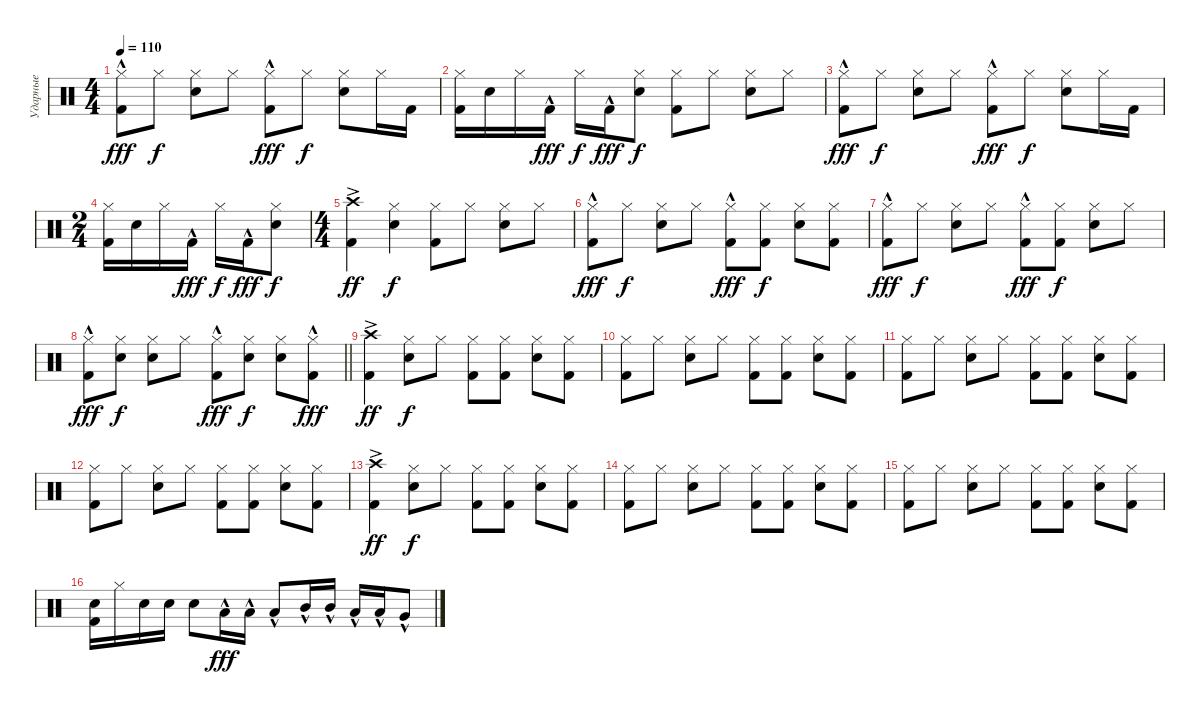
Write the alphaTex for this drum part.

\track ("Ударные" "Ударные") {instrument percussion}
\staff {score}
\articulation defaults
\ts (4 4)
\tempo 110
\clef neutral
\ks c
("Kick (hit) 2"{hac} "Hi-Hat (closed)").8{dy fff} "Hi-Hat (closed)".8{dy f} ("Snare (hit) 2" "Hi-Hat (closed)").8 "Hi-Hat (closed)".8 ("Kick (hit) 2"{hac} "Hi-Hat (closed)").8{dy fff} "Hi-Hat (closed)".8{dy f} ("Snare (hit) 2" "Hi-Hat (closed)").8 "Hi-Hat (closed)".16 "Kick (hit) 2".16 |
("Kick (hit) 2" "Hi-Hat (closed)").16 "Snare (hit) 2".16 "Hi-Hat (closed)".16 "Kick (hit) 2"{hac}.16{dy fff} "Hi-Hat (closed)".16{dy f} "Kick (hit) 2"{hac}.16{dy fff} ("Snare (hit) 2" "Hi-Hat (closed)").8{dy f} ("Kick (hit) 2" "Hi-Hat (closed)").8 "Hi-Hat (closed)".8 ("Snare (hit) 2" "Hi-Hat (closed)").8 "Hi-Hat (closed)".8 |
("Kick (hit) 2"{hac} "Hi-Hat (closed)").8{dy fff} "Hi-Hat (closed)".8{dy f} ("Snare (hit) 2" "Hi-Hat (closed)").8 "Hi-Hat (closed)".8 ("Kick (hit) 2"{hac} "Hi-Hat (closed)").8{dy fff} "Hi-Hat (closed)".8{dy f} ("Snare (hit) 2" "Hi-Hat (closed)").8 "Hi-Hat (closed)".16 "Kick (hit) 2".16 |
\ts (2 4)
("Kick (hit) 2" "Hi-Hat (closed)").16 "Snare (hit) 2".16 "Hi-Hat (closed)".16 "Kick (hit) 2"{hac}.16{dy fff} "Hi-Hat (closed)".16{dy f} "Kick (hit) 2"{hac}.16{dy fff} ("Snare (hit) 2" "Hi-Hat (closed)").8{dy f} |
\ts (4 4)
("Kick (hit) 2" "Crash high (hit)"{ac}).4{dy ff} ("Snare (hit) 2" "Hi-Hat (closed)").4{dy f} ("Kick (hit) 2" "Hi-Hat (closed)").8 "Hi-Hat (closed)".8 ("Snare (hit) 2" "Hi-Hat (closed)").8 "Hi-Hat (closed)".8 |
("Kick (hit) 2"{hac} "Hi-Hat (closed)").8{dy fff} "Hi-Hat (closed)".8{dy f} ("Snare (hit) 2" "Hi-Hat (closed)").8 "Hi-Hat (closed)".8 ("Kick (hit) 2"{hac} "Hi-Hat (closed)").8{dy fff} ("Kick (hit) 2" "Hi-Hat (closed)").8{dy f} ("Snare (hit) 2" "Hi-Hat (closed)").8 ("Kick (hit) 2" "Hi-Hat (closed)").8 |
("Kick (hit) 2"{hac} "Hi-Hat (closed)").8{dy fff} "Hi-Hat (closed)".8{dy f} ("Snare (hit) 2" "Hi-Hat (closed)").8 "Hi-Hat (closed)".8 ("Kick (hit) 2"{hac} "Hi-Hat (closed)").8{dy fff} ("Kick (hit) 2" "Hi-Hat (closed)").8{dy f} ("Snare (hit) 2" "Hi-Hat (closed)").8 "Hi-Hat (closed)".8 |
\barLineRight lightlight
("Kick (hit) 2"{hac} "Hi-Hat (closed)").8{dy fff} ("Snare (hit) 2" "Hi-Hat (closed)").8{dy f} ("Snare (hit) 2" "Hi-Hat (closed)").8 "Hi-Hat (closed)".8 ("Kick (hit) 2"{hac} "Hi-Hat (closed)").8{dy fff} ("Snare (hit) 2" "Hi-Hat (closed)").8{dy f} ("Snare (hit) 2" "Hi-Hat (closed)").8 ("Kick (hit) 2"{hac} "Hi-Hat (closed)").8{dy fff} |
("Kick (hit) 2" "Crash high (hit)"{ac}).4{dy ff} ("Snare (hit) 2" "Hi-Hat (closed)").8{dy f} "Hi-Hat (closed)".8 ("Kick (hit) 2" "Hi-Hat (closed)").8 ("Kick (hit) 2" "Hi-Hat (closed)").8 ("Snare (hit) 2" "Hi-Hat (closed)").8 ("Kick (hit) 2" "Hi-Hat (closed)").8 |
("Kick (hit) 2" "Hi-Hat (closed)").8 "Hi-Hat (closed)".8 ("Snare (hit) 2" "Hi-Hat (closed)").8 "Hi-Hat (closed)".8 ("Kick (hit) 2" "Hi-Hat (closed)").8 ("Kick (hit) 2" "Hi-Hat (closed)").8 ("Snare (hit) 2" "Hi-Hat (closed)").8 ("Kick (hit) 2" "Hi-Hat (closed)").8 |
("Kick (hit) 2" "Hi-Hat (closed)").8 "Hi-Hat (closed)".8 ("Snare (hit) 2" "Hi-Hat (closed)").8 "Hi-Hat (closed)".8 ("Kick (hit) 2" "Hi-Hat (closed)").8 ("Kick (hit) 2" "Hi-Hat (closed)").8 ("Snare (hit) 2" "Hi-Hat (closed)").8 ("Kick (hit) 2" "Hi-Hat (closed)").8 |
("Kick (hit) 2" "Hi-Hat (closed)").8 "Hi-Hat (closed)".8 ("Snare (hit) 2" "Hi-Hat (closed)").8 "Hi-Hat (closed)".8 ("Kick (hit) 2" "Hi-Hat (closed)").8 ("Kick (hit) 2" "Hi-Hat (closed)").8 ("Snare (hit) 2" "Hi-Hat (closed)").8 ("Kick (hit) 2" "Hi-Hat (closed)").8 |
("Kick (hit) 2" "Crash high (hit)"{ac}).4{dy ff} ("Snare (hit) 2" "Hi-Hat (closed)").8{dy f} "Hi-Hat (closed)".8 ("Kick (hit) 2" "Hi-Hat (closed)").8 ("Kick (hit) 2" "Hi-Hat (closed)").8 ("Snare (hit) 2" "Hi-Hat (closed)").8 ("Kick (hit) 2" "Hi-Hat (closed)").8 |
("Kick (hit) 2" "Hi-Hat (closed)").8 "Hi-Hat (closed)".8 ("Snare (hit) 2" "Hi-Hat (closed)").8 "Hi-Hat (closed)".8 ("Kick (hit) 2" "Hi-Hat (closed)").8 ("Kick (hit) 2" "Hi-Hat (closed)").8 ("Snare (hit) 2" "Hi-Hat (closed)").8 ("Kick (hit) 2" "Hi-Hat (closed)").8 |
("Kick (hit) 2" "Hi-Hat (closed)").8 "Hi-Hat (closed)".8 ("Snare (hit) 2" "Hi-Hat (closed)").8 "Hi-Hat (closed)".8 ("Kick (hit) 2" "Hi-Hat (closed)").8 ("Kick (hit) 2" "Hi-Hat (closed)").8 ("Snare (hit) 2" "Hi-Hat (closed)").8 ("Kick (hit) 2" "Hi-Hat (closed)").8 |
("Kick (hit) 2" "Electric Snare (hit)").16 "Hi-Hat (closed)".16 "Snare (hit) 2".16 "Snare (hit) 2".16 "Snare (hit) 2".8 "Low Tom (hit)"{hac}.16{dy fff} "Low Tom (hit)"{hac}.16 "Low Tom (hit)"{hac}.8 "Mid Tom (hit)"{hac}.16 "Mid Tom (hit)"{hac}.16 "Low Tom (hit)"{hac}.16 "Low Tom (hit)"{hac}.16 "Very Low Tom (hit)"{hac}.8
